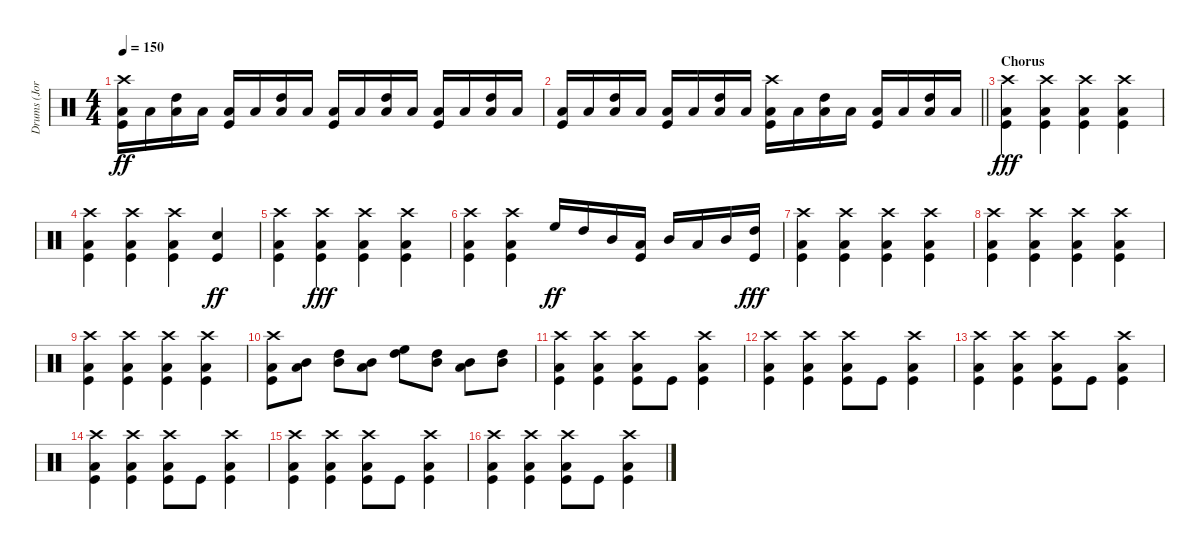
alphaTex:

\track ("Drums (Jordan Hastings)" "Drums (Jor") {instrument percussion}
\staff {score}
\articulation defaults
\ts (4 4)
\tempo 150
\clef neutral
\ks c
("Crash high (hit)" "Kick (hit)" "Low Floor Tom (hit)").16{dy ff} "Low Floor Tom (hit)".16 ("High Tom (hit)" "Low Floor Tom (hit)").16 "Low Floor Tom (hit)".16 ("Kick (hit)" "Low Floor Tom (hit)").16 "Low Floor Tom (hit)".16 ("High Tom (hit)" "Low Floor Tom (hit)").16 "Low Floor Tom (hit)".16 ("Kick (hit)" "Low Floor Tom (hit)").16 "Low Floor Tom (hit)".16 ("High Tom (hit)" "Low Floor Tom (hit)").16 "Low Floor Tom (hit)".16 ("Kick (hit)" "Low Floor Tom (hit)").16 "Low Floor Tom (hit)".16 ("High Tom (hit)" "Low Floor Tom (hit)").16 "Low Floor Tom (hit)".16 |
\barLineRight lightlight
("Kick (hit)" "Low Floor Tom (hit)").16 "Low Floor Tom (hit)".16 ("High Tom (hit)" "Low Floor Tom (hit)").16 "Low Floor Tom (hit)".16 ("Kick (hit)" "Low Floor Tom (hit)").16 "Low Floor Tom (hit)".16 ("High Tom (hit)" "Low Floor Tom (hit)").16 "Low Floor Tom (hit)".16 ("Crash high (hit)" "Kick (hit)" "Low Floor Tom (hit)").16 "Low Floor Tom (hit)".16 ("High Tom (hit)" "Low Floor Tom (hit)").16 "Low Floor Tom (hit)".16 ("Kick (hit)" "Low Floor Tom (hit)").16 "Low Floor Tom (hit)".16 ("High Tom (hit)" "Low Floor Tom (hit)").16 "Low Floor Tom (hit)".16 |
\section ("" "Chorus")
("Crash high (hit)" "Low Floor Tom (hit)" "Kick (hit)").4{dy fff} ("Crash high (hit)" "Low Floor Tom (hit)" "Kick (hit)").4 ("Crash high (hit)" "Low Floor Tom (hit)" "Kick (hit)").4 ("Crash high (hit)" "Low Floor Tom (hit)" "Kick (hit)").4 |
("Crash high (hit)" "Low Floor Tom (hit)" "Kick (hit)").4 ("Crash high (hit)" "Low Floor Tom (hit)" "Kick (hit)").4 ("Crash high (hit)" "Low Floor Tom (hit)" "Kick (hit)").4 ("Snare (hit) 2" "Kick (hit)").4{dy ff} |
("Crash high (hit)" "Low Floor Tom (hit)" "Kick (hit)").4 ("Crash high (hit)" "Low Floor Tom (hit)" "Kick (hit)").4{dy fff} ("Crash high (hit)" "Low Floor Tom (hit)" "Kick (hit)").4 ("Crash high (hit)" "Low Floor Tom (hit)" "Kick (hit)").4 |
("Crash high (hit)" "Low Floor Tom (hit)" "Kick (hit)").4 ("Crash high (hit)" "Low Floor Tom (hit)" "Kick (hit)").4 "High Floor Tom (hit)".16{dy ff} "High Tom (hit)".16 "Mid Tom (hit)".16 ("Low Tom (hit)" "Kick (hit)").16 "Mid Tom (hit)".16 "Low Floor Tom (hit)".16 "Mid Tom (hit)".16 ("High Tom (hit)" "Kick (hit)").16{dy fff} |
("Crash high (hit)" "Low Floor Tom (hit)" "Kick (hit)").4 ("Crash high (hit)" "Low Floor Tom (hit)" "Kick (hit)").4 ("Crash high (hit)" "Low Floor Tom (hit)" "Kick (hit)").4 ("Crash high (hit)" "Low Floor Tom (hit)" "Kick (hit)").4 |
("Crash high (hit)" "Low Floor Tom (hit)" "Kick (hit)").4 ("Crash high (hit)" "Low Floor Tom (hit)" "Kick (hit)").4 ("Crash high (hit)" "Low Floor Tom (hit)" "Kick (hit)").4 ("Crash high (hit)" "Low Floor Tom (hit)" "Kick (hit)").4 |
("Crash high (hit)" "Low Floor Tom (hit)" "Kick (hit)").4 ("Crash high (hit)" "Low Floor Tom (hit)" "Kick (hit)").4 ("Crash high (hit)" "Low Floor Tom (hit)" "Kick (hit)").4 ("Crash high (hit)" "Low Floor Tom (hit)" "Kick (hit)").4 |
("Crash high (hit)" "Low Floor Tom (hit)" "Kick (hit)").8 ("Mid Tom (hit)" "Low Tom (hit)").8 ("Mid Tom (hit)" "High Tom (hit)").8 ("Low Tom (hit)" "Mid Tom (hit)").8 ("High Floor Tom (hit)" "High Tom (hit)").8 ("Mid Tom (hit)" "High Tom (hit)").8 ("Mid Tom (hit)" "Low Tom (hit)").8 ("Mid Tom (hit)" "High Tom (hit)").8 |
("Crash high (hit)" "Low Floor Tom (hit)" "Kick (hit)").4 ("Crash high (hit)" "Low Floor Tom (hit)" "Kick (hit)").4 ("Crash high (hit)" "Low Floor Tom (hit)" "Kick (hit)").8 "Kick (hit)".8 ("Crash high (hit)" "Low Floor Tom (hit)" "Kick (hit)").4 |
("Crash high (hit)" "Low Floor Tom (hit)" "Kick (hit)").4 ("Crash high (hit)" "Low Floor Tom (hit)" "Kick (hit)").4 ("Crash high (hit)" "Low Floor Tom (hit)" "Kick (hit)").8 "Kick (hit)".8 ("Crash high (hit)" "Low Floor Tom (hit)" "Kick (hit)").4 |
("Crash high (hit)" "Low Floor Tom (hit)" "Kick (hit)").4 ("Crash high (hit)" "Low Floor Tom (hit)" "Kick (hit)").4 ("Crash high (hit)" "Low Floor Tom (hit)" "Kick (hit)").8 "Kick (hit)".8 ("Crash high (hit)" "Low Floor Tom (hit)" "Kick (hit)").4 |
("Crash high (hit)" "Low Floor Tom (hit)" "Kick (hit)").4 ("Crash high (hit)" "Low Floor Tom (hit)" "Kick (hit)").4 ("Crash high (hit)" "Low Floor Tom (hit)" "Kick (hit)").8 "Kick (hit)".8 ("Crash high (hit)" "Low Floor Tom (hit)" "Kick (hit)").4 |
("Crash high (hit)" "Low Floor Tom (hit)" "Kick (hit)").4 ("Crash high (hit)" "Low Floor Tom (hit)" "Kick (hit)").4 ("Crash high (hit)" "Low Floor Tom (hit)" "Kick (hit)").8 "Kick (hit)".8 ("Crash high (hit)" "Low Floor Tom (hit)" "Kick (hit)").4 |
("Crash high (hit)" "Low Floor Tom (hit)" "Kick (hit)").4 ("Crash high (hit)" "Low Floor Tom (hit)" "Kick (hit)").4 ("Crash high (hit)" "Low Floor Tom (hit)" "Kick (hit)").8 "Kick (hit)".8 ("Crash high (hit)" "Low Floor Tom (hit)" "Kick (hit)").4
